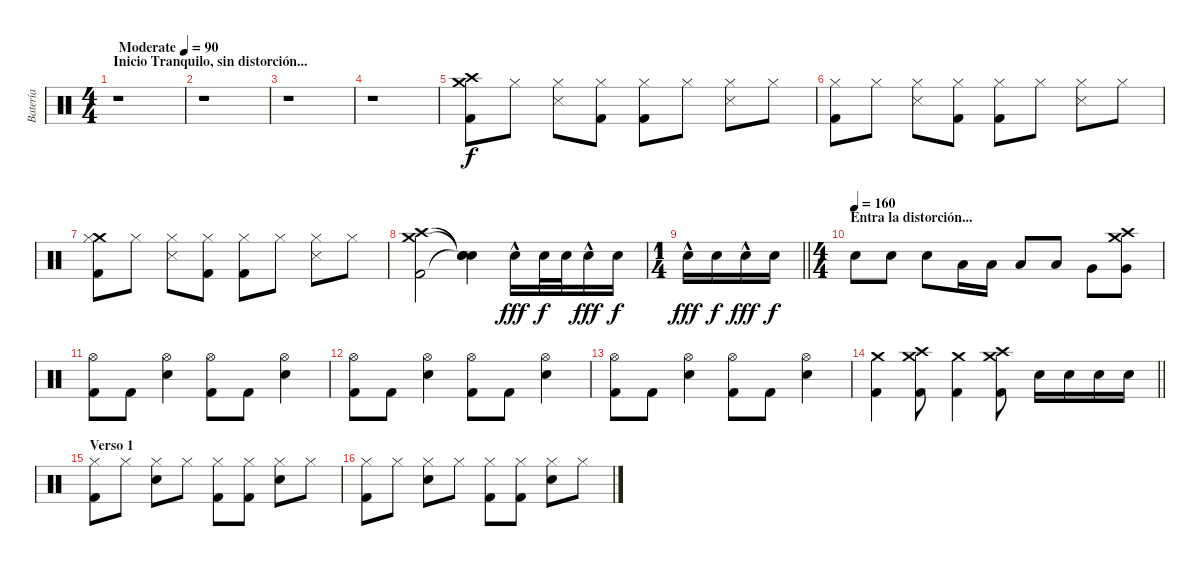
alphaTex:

\track ("Batería" "Batería") {instrument percussion}
\staff {score}
\articulation defaults
\ts (4 4)
\section ("" "Inicio Tranquilo, sin distorción...")
\tempo (90 "Moderate")
\clef neutral
\ks c
r.1{dy f} |
r.1 |
r.1 |
r.1 |
("Crash high (hit)" "Crash medium (hit)" "Kick (hit) 2").8 "Hi-Hat (closed)".8 ("Hi-Hat (closed)" "Snare (side stick) 3").8 ("Hi-Hat (closed)" "Kick (hit) 2").8 ("Hi-Hat (closed)" "Kick (hit) 2").8 "Hi-Hat (closed)".8 ("Hi-Hat (closed)" "Snare (side stick) 3").8 "Hi-Hat (closed)".8 |
("Hi-Hat (closed)" "Kick (hit) 2").8 "Hi-Hat (closed)".8 ("Hi-Hat (closed)" "Snare (side stick) 3").8 ("Hi-Hat (closed)" "Kick (hit) 2").8 ("Hi-Hat (closed)" "Kick (hit) 2").8 "Hi-Hat (closed)".8 ("Hi-Hat (closed)" "Snare (side stick) 3").8 "Hi-Hat (closed)".8 |
("Crash medium (hit)" "Hi-Hat (closed)" "Kick (hit) 2").8 "Hi-Hat (closed)".8 ("Hi-Hat (closed)" "Snare (side stick) 3").8 ("Hi-Hat (closed)" "Kick (hit) 2").8 ("Hi-Hat (closed)" "Kick (hit) 2").8 "Hi-Hat (closed)".8 ("Hi-Hat (closed)" "Snare (side stick) 3").8 "Hi-Hat (closed)".8 |
("Crash high (hit)" "Crash medium (hit)" "Kick (hit) 2").2 ("Snare (hit)"{t} "Snare (hit)"{t} "Snare (hit)"{t} "Snare (hit)").4 "Snare (hit) 2"{hac}.16{dy fff} "Snare (hit) 2".32{dy f} "Snare (hit) 2".32 "Snare (hit) 2"{hac}.16{dy fff} "Snare (hit) 2".16{dy f} |
\ts (1 4)
\barLineRight lightlight "Snare (hit) 2"{hac}.16{dy fff} "Snare (hit) 2".16{dy f} "Snare (hit) 2"{hac}.16{dy fff} "Snare (hit) 2".16{dy f}
|
\ts (4 4)
\section ("" "Entra la distorción...")
\tempo (160)
"Snare (hit) 2".8 "Snare (hit) 2".8 "Snare (hit) 2".8 "Low Tom (hit)".16 "Low Tom (hit)".16 "Low Tom (hit)".8 "Low Tom (hit)".8 "Very Low Tom (hit)".8 ("Crash high (hit)" "Crash medium (hit)" "Very Low Tom (hit)").8 |
("Hi-Hat (open)" "Kick (hit) 2").8 "Kick (hit) 2".8 ("Hi-Hat (open)" "Snare (hit) 2").4 ("Hi-Hat (open)" "Kick (hit) 2").8 "Kick (hit) 2".8 ("Hi-Hat (open)" "Snare (hit) 2").4 |
("Hi-Hat (open)" "Kick (hit) 2").8 "Kick (hit) 2".8 ("Hi-Hat (open)" "Snare (hit) 2").4 ("Hi-Hat (open)" "Kick (hit) 2").8 "Kick (hit) 2".8 ("Hi-Hat (open)" "Snare (hit) 2").4 |
("Hi-Hat (open)" "Kick (hit) 2").8 "Kick (hit) 2".8 ("Hi-Hat (open)" "Snare (hit) 2").4 ("Hi-Hat (open)" "Kick (hit) 2").8 "Kick (hit) 2".8 ("Hi-Hat (open)" "Snare (hit) 2").4 |
\barLineRight lightlight
("Crash medium (hit)" "Kick (hit) 2").4 ("Crash high (hit)" "Crash medium (hit)" "Kick (hit) 2").8 ("Crash medium (hit)" "Kick (hit) 2").4 ("Crash high (hit)" "Crash medium (hit)" "Kick (hit) 2").8 "Snare (hit) 2".16 "Snare (hit) 2".16 "Snare (hit) 2".16 "Snare (hit) 2".16 |
\section ("" "Verso 1")
("Hi-Hat (closed)" "Kick (hit) 2").8 "Hi-Hat (closed)".8 ("Hi-Hat (closed)" "Snare (hit) 2").8 "Hi-Hat (closed)".8 ("Hi-Hat (closed)" "Kick (hit) 2").8 ("Hi-Hat (closed)" "Kick (hit) 2").8 ("Hi-Hat (closed)" "Snare (hit) 2").8 "Hi-Hat (closed)".8 |
("Hi-Hat (closed)" "Kick (hit) 2").8 "Hi-Hat (closed)".8 ("Hi-Hat (closed)" "Snare (hit) 2").8 "Hi-Hat (closed)".8 ("Hi-Hat (closed)" "Kick (hit) 2").8 ("Hi-Hat (closed)" "Kick (hit) 2").8 ("Hi-Hat (closed)" "Snare (hit) 2").8 "Hi-Hat (closed)".8
